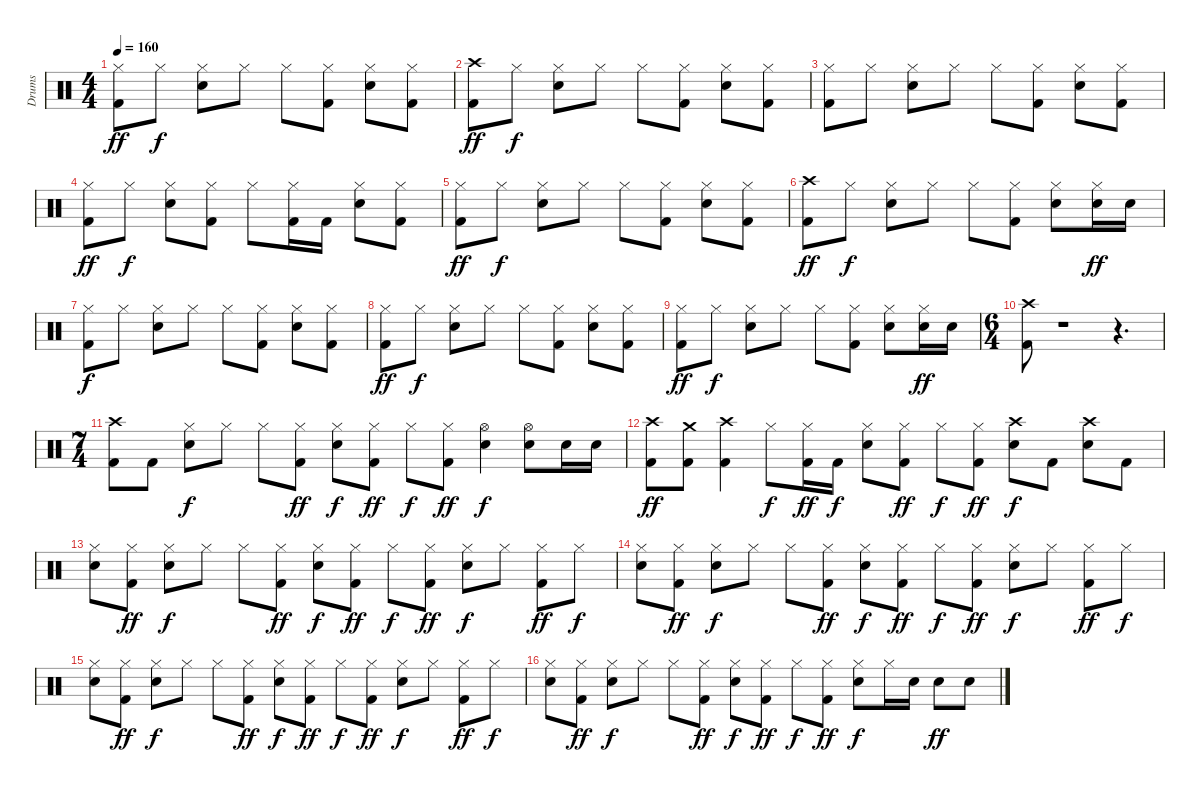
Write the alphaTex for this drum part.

\track ("Drums" "Drums") {instrument percussion}
\staff {score}
\articulation defaults
\ts (4 4)
\tempo 160
\clef neutral
\ks c
("Hi-Hat (closed)" "Kick (hit) 2").8{dy ff} "Hi-Hat (closed)".8{dy f} ("Hi-Hat (closed)" "Snare (hit) 2").8 "Hi-Hat (closed)".8 "Hi-Hat (closed)".8 ("Hi-Hat (closed)" "Kick (hit) 2").8 ("Hi-Hat (closed)" "Snare (hit) 2").8 ("Hi-Hat (closed)" "Kick (hit) 2").8 |
("Crash high (hit)" "Kick (hit) 2").8{dy ff} "Hi-Hat (closed)".8{dy f} ("Hi-Hat (closed)" "Snare (hit) 2").8 "Hi-Hat (closed)".8 "Hi-Hat (closed)".8 ("Hi-Hat (closed)" "Kick (hit) 2").8 ("Hi-Hat (closed)" "Snare (hit) 2").8 ("Hi-Hat (closed)" "Kick (hit) 2").8 |
("Hi-Hat (closed)" "Kick (hit) 2").8 "Hi-Hat (closed)".8 ("Hi-Hat (closed)" "Snare (hit) 2").8 "Hi-Hat (closed)".8 "Hi-Hat (closed)".8 ("Hi-Hat (closed)" "Kick (hit) 2").8 ("Hi-Hat (closed)" "Snare (hit) 2").8 ("Hi-Hat (closed)" "Kick (hit) 2").8 |
("Hi-Hat (closed)" "Kick (hit) 2").8{dy ff} "Hi-Hat (closed)".8{dy f} ("Hi-Hat (closed)" "Snare (hit) 2").8 ("Kick (hit) 2" "Hi-Hat (closed)").8 "Hi-Hat (closed)".8 ("Hi-Hat (closed)" "Kick (hit) 2").16 "Kick (hit) 2".16 ("Hi-Hat (closed)" "Snare (hit) 2").8 ("Hi-Hat (closed)" "Kick (hit) 2").8 |
("Hi-Hat (closed)" "Kick (hit) 2").8{dy ff} "Hi-Hat (closed)".8{dy f} ("Hi-Hat (closed)" "Snare (hit) 2").8 "Hi-Hat (closed)".8 "Hi-Hat (closed)".8 ("Hi-Hat (closed)" "Kick (hit) 2").8 ("Hi-Hat (closed)" "Snare (hit) 2").8 ("Hi-Hat (closed)" "Kick (hit) 2").8 |
("Crash high (hit)" "Kick (hit) 2").8{dy ff} "Hi-Hat (closed)".8{dy f} ("Hi-Hat (closed)" "Snare (hit) 2").8 "Hi-Hat (closed)".8 "Hi-Hat (closed)".8 ("Hi-Hat (closed)" "Kick (hit) 2").8 ("Hi-Hat (closed)" "Snare (hit) 2").8 ("Snare (hit) 2" "Hi-Hat (closed)").16{dy ff} "Snare (hit) 2".16 |
("Hi-Hat (closed)" "Kick (hit) 2").8{dy f} "Hi-Hat (closed)".8 ("Hi-Hat (closed)" "Snare (hit) 2").8 "Hi-Hat (closed)".8 "Hi-Hat (closed)".8 ("Hi-Hat (closed)" "Kick (hit) 2").8 ("Hi-Hat (closed)" "Snare (hit) 2").8 ("Hi-Hat (closed)" "Kick (hit) 2").8 |
("Hi-Hat (closed)" "Kick (hit) 2").8{dy ff} "Hi-Hat (closed)".8{dy f} ("Hi-Hat (closed)" "Snare (hit) 2").8 "Hi-Hat (closed)".8 "Hi-Hat (closed)".8 ("Hi-Hat (closed)" "Kick (hit) 2").8 ("Hi-Hat (closed)" "Snare (hit) 2").8 ("Hi-Hat (closed)" "Kick (hit) 2").8 |
("Hi-Hat (closed)" "Kick (hit) 2").8{dy ff} "Hi-Hat (closed)".8{dy f} ("Hi-Hat (closed)" "Snare (hit) 2").8 "Hi-Hat (closed)".8 "Hi-Hat (closed)".8 ("Hi-Hat (closed)" "Kick (hit) 2").8 ("Hi-Hat (closed)" "Snare (hit) 2").8 ("Snare (hit) 2" "Hi-Hat (closed)").16{dy ff} "Snare (hit) 2".16 |
\ts (6 4)
("Crash high (hit)" "Kick (hit) 2").8 r.1 r.4{d} |
\ts (7 4)
("Crash high (hit)" "Kick (hit) 2").8 "Kick (hit) 2".8 ("Hi-Hat (closed)" "Snare (hit) 2").8{dy f} "Hi-Hat (closed)".8 "Hi-Hat (closed)".8 ("Hi-Hat (closed)" "Kick (hit) 2").8{dy ff} ("Hi-Hat (closed)" "Snare (hit) 2").8{dy f} ("Hi-Hat (closed)" "Kick (hit) 2").8{dy ff} "Hi-Hat (closed)".8{dy f} ("Hi-Hat (closed)" "Kick (hit) 2").8{dy ff} ("Hi-Hat (open)" "Snare (hit) 2").4{dy f} ("Hi-Hat (open)" "Snare (hit) 2").8 "Snare (hit) 2".16 "Snare (hit) 2".16 |
("Crash high (hit)" "Kick (hit) 2").8{dy ff} ("Crash medium (hit)" "Kick (hit) 2").8 ("Crash high (hit)" "Kick (hit) 2").4 "Hi-Hat (closed)".8{dy f} ("Hi-Hat (closed)" "Kick (hit) 2").16{dy ff} "Kick (hit) 2".16{dy f} ("Hi-Hat (closed)" "Snare (hit) 2").8 ("Hi-Hat (closed)" "Kick (hit) 2").8{dy ff} "Hi-Hat (closed)".8{dy f} ("Hi-Hat (closed)" "Kick (hit) 2").8{dy ff} ("Crash high (hit)" "Snare (hit) 2").8{dy f} "Kick (hit) 2".8 ("Crash high (hit)" "Snare (hit) 2").8 "Kick (hit) 2".8 |
("Snare (hit) 2" "Hi-Hat (closed)").8 ("Hi-Hat (closed)" "Kick (hit) 2").8{dy ff} ("Hi-Hat (closed)" "Snare (hit) 2").8{dy f} "Hi-Hat (closed)".8 "Hi-Hat (closed)".8 ("Hi-Hat (closed)" "Kick (hit) 2").8{dy ff} ("Hi-Hat (closed)" "Snare (hit) 2").8{dy f} ("Hi-Hat (closed)" "Kick (hit) 2").8{dy ff} "Hi-Hat (closed)".8{dy f} ("Hi-Hat (closed)" "Kick (hit) 2").8{dy ff} ("Hi-Hat (closed)" "Snare (hit) 2").8{dy f} "Hi-Hat (closed)".8 ("Hi-Hat (closed)" "Kick (hit) 2").8{dy ff} "Hi-Hat (closed)".8{dy f} |
("Snare (hit) 2" "Hi-Hat (closed)").8 ("Hi-Hat (closed)" "Kick (hit) 2").8{dy ff} ("Hi-Hat (closed)" "Snare (hit) 2").8{dy f} "Hi-Hat (closed)".8 "Hi-Hat (closed)".8 ("Hi-Hat (closed)" "Kick (hit) 2").8{dy ff} ("Hi-Hat (closed)" "Snare (hit) 2").8{dy f} ("Hi-Hat (closed)" "Kick (hit) 2").8{dy ff} "Hi-Hat (closed)".8{dy f} ("Hi-Hat (closed)" "Kick (hit) 2").8{dy ff} ("Hi-Hat (closed)" "Snare (hit) 2").8{dy f} "Hi-Hat (closed)".8 ("Hi-Hat (closed)" "Kick (hit) 2").8{dy ff} "Hi-Hat (closed)".8{dy f} |
("Snare (hit) 2" "Hi-Hat (closed)").8 ("Hi-Hat (closed)" "Kick (hit) 2").8{dy ff} ("Hi-Hat (closed)" "Snare (hit) 2").8{dy f} "Hi-Hat (closed)".8 "Hi-Hat (closed)".8 ("Hi-Hat (closed)" "Kick (hit) 2").8{dy ff} ("Hi-Hat (closed)" "Snare (hit) 2").8{dy f} ("Hi-Hat (closed)" "Kick (hit) 2").8{dy ff} "Hi-Hat (closed)".8{dy f} ("Hi-Hat (closed)" "Kick (hit) 2").8{dy ff} ("Hi-Hat (closed)" "Snare (hit) 2").8{dy f} "Hi-Hat (closed)".8 ("Hi-Hat (closed)" "Kick (hit) 2").8{dy ff} "Hi-Hat (closed)".8{dy f} |
("Snare (hit) 2" "Hi-Hat (closed)").8 ("Hi-Hat (closed)" "Kick (hit) 2").8{dy ff} ("Hi-Hat (closed)" "Snare (hit) 2").8{dy f} "Hi-Hat (closed)".8 "Hi-Hat (closed)".8 ("Hi-Hat (closed)" "Kick (hit) 2").8{dy ff} ("Hi-Hat (closed)" "Snare (hit) 2").8{dy f} ("Hi-Hat (closed)" "Kick (hit) 2").8{dy ff} "Hi-Hat (closed)".8{dy f} ("Hi-Hat (closed)" "Kick (hit) 2").8{dy ff} ("Hi-Hat (closed)" "Snare (hit) 2").8{dy f} "Hi-Hat (closed)".16 "Snare (hit) 2".16 "Snare (hit) 2".8{dy ff} "Snare (hit) 2".8
